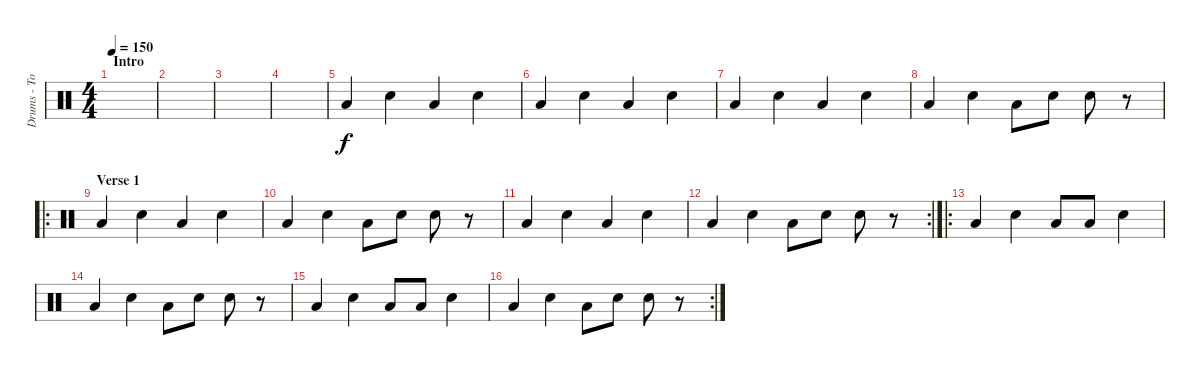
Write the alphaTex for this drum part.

\track ("Drums - Tom" "Drums - To") {instrument percussion}
\staff {score}
\articulation defaults
\ts (4 4)
\section ("" "Intro")
\tempo 150
\clef neutral
\ks c
|
|
|
|
"Low Floor Tom (hit)".4 "Snare (hit) 2".4 "Low Floor Tom (hit)".4 "Snare (hit) 2".4 |
"Low Floor Tom (hit)".4 "Snare (hit) 2".4 "Low Floor Tom (hit)".4 "Snare (hit) 2".4 |
"Low Floor Tom (hit)".4 "Snare (hit) 2".4 "Low Floor Tom (hit)".4 "Snare (hit) 2".4 |
"Low Floor Tom (hit)".4 "Snare (hit) 2".4 "Low Floor Tom (hit)".8 "Snare (hit) 2".8 "Snare (hit) 2".8 r.8 |
\ro
\section ("" "Verse 1")
"Low Floor Tom (hit)".4 "Snare (hit) 2".4 "Low Floor Tom (hit)".4 "Snare (hit) 2".4 |
"Low Floor Tom (hit)".4 "Snare (hit) 2".4 "Low Floor Tom (hit)".8 "Snare (hit) 2".8 "Snare (hit) 2".8 r.8 |
"Low Floor Tom (hit)".4 "Snare (hit) 2".4 "Low Floor Tom (hit)".4 "Snare (hit) 2".4 |
\rc 2 "Low Floor Tom (hit)".4 "Snare (hit) 2".4 "Low Floor Tom (hit)".8 "Snare (hit) 2".8 "Snare (hit) 2".8
r.8 |
\ro "Low Floor Tom (hit)".4 "Snare (hit) 2".4 "Low Floor Tom (hit)".8 "Low Floor Tom (hit)".8 "Snare (hit) 2".4
|
"Low Floor Tom (hit)".4 "Snare (hit) 2".4 "Low Floor Tom (hit)".8 "Snare (hit) 2".8 "Snare (hit) 2".8 r.8 |
"Low Floor Tom (hit)".4 "Snare (hit) 2".4 "Low Floor Tom (hit)".8 "Low Floor Tom (hit)".8 "Snare (hit) 2".4 |
\rc 2 "Low Floor Tom (hit)".4 "Snare (hit) 2".4 "Low Floor Tom (hit)".8 "Snare (hit) 2".8 "Snare (hit) 2".8
r.8
